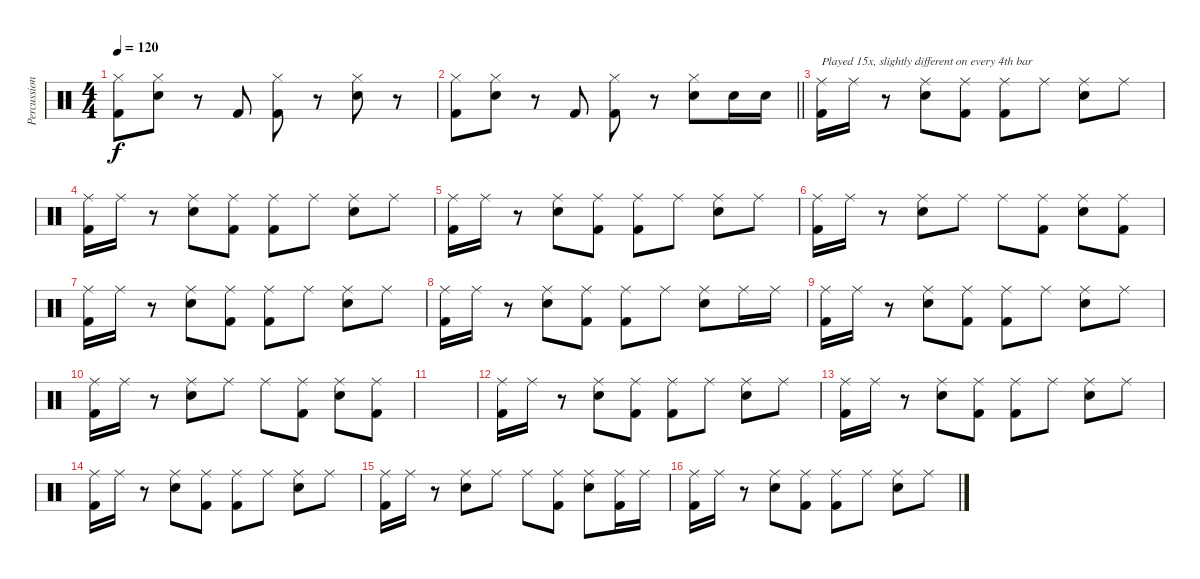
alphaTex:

\track ("Percussioni" "Percussion") {instrument percussion}
\staff {score}
\articulation defaults
\ts (4 4)
\tempo 120
\clef neutral
\ks c
("Hi-Hat (closed)" "Kick (hit) 2").8{dy f} ("Electric Snare (hit)" "Hi-Hat (closed)").8 r.8 "Kick (hit) 2".8 ("Hi-Hat (closed)" "Kick (hit) 2").8 r.8 ("Electric Snare (hit)" "Hi-Hat (closed)").8 r.8 |
\barLineRight lightlight
("Hi-Hat (closed)" "Kick (hit) 2").8 ("Electric Snare (hit)" "Hi-Hat (closed)").8 r.8 "Kick (hit) 2".8 ("Hi-Hat (closed)" "Kick (hit) 2").8 r.8 ("Electric Snare (hit)" "Hi-Hat (closed)").8 "Electric Snare (hit)".16 "Electric Snare (hit)".16 |
("Ride (middle)" "Kick (hit) 2").16{txt "Played 15x, slightly different on every 4th bar"} "Ride (middle)".16 r.8 ("Ride (middle)" "Electric Snare (hit)").8 ("Ride (middle)" "Kick (hit) 2").8 ("Ride (middle)" "Kick (hit) 2").8 "Ride (middle)".8 ("Ride (middle)" "Electric Snare (hit)").8 "Ride (middle)".8 |
("Ride (middle)" "Kick (hit) 2").16 "Ride (middle)".16 r.8 ("Ride (middle)" "Electric Snare (hit)").8 ("Ride (middle)" "Kick (hit) 2").8 ("Ride (middle)" "Kick (hit) 2").8 "Ride (middle)".8 ("Ride (middle)" "Electric Snare (hit)").8 "Ride (middle)".8 |
("Ride (middle)" "Kick (hit) 2").16 "Ride (middle)".16 r.8 ("Ride (middle)" "Electric Snare (hit)").8 ("Ride (middle)" "Kick (hit) 2").8 ("Ride (middle)" "Kick (hit) 2").8 "Ride (middle)".8 ("Ride (middle)" "Electric Snare (hit)").8 "Ride (middle)".8 |
("Ride (middle)" "Kick (hit) 2").16 "Ride (middle)".16 r.8 ("Ride (middle)" "Electric Snare (hit)").8 "Ride (middle)".8 "Ride (middle)".8 ("Ride (middle)" "Kick (hit) 2").8 ("Ride (middle)" "Electric Snare (hit)").8 ("Ride (middle)" "Kick (hit) 2").8 |
("Ride (middle)" "Kick (hit) 2").16 "Ride (middle)".16 r.8 ("Ride (middle)" "Electric Snare (hit)").8 ("Ride (middle)" "Kick (hit) 2").8 ("Ride (middle)" "Kick (hit) 2").8 "Ride (middle)".8 ("Ride (middle)" "Electric Snare (hit)").8 "Ride (middle)".8 |
("Ride (middle)" "Kick (hit) 2").16 "Ride (middle)".16 r.8 ("Ride (middle)" "Electric Snare (hit)").8 ("Ride (middle)" "Kick (hit) 2").8 ("Ride (middle)" "Kick (hit) 2").8 "Ride (middle)".8 ("Ride (middle)" "Electric Snare (hit)").8 "Ride (middle)".16 "Ride (middle)".16 |
("Ride (middle)" "Kick (hit) 2").16 "Ride (middle)".16 r.8 ("Ride (middle)" "Electric Snare (hit)").8 ("Ride (middle)" "Kick (hit) 2").8 ("Ride (middle)" "Kick (hit) 2").8 "Ride (middle)".8 ("Ride (middle)" "Electric Snare (hit)").8 "Ride (middle)".8 |
("Ride (middle)" "Kick (hit) 2").16 "Ride (middle)".16 r.8 ("Ride (middle)" "Electric Snare (hit)").8 "Ride (middle)".8 "Ride (middle)".8 ("Ride (middle)" "Kick (hit) 2").8 ("Ride (middle)" "Electric Snare (hit)").8 ("Ride (middle)" "Kick (hit) 2").8 |
|
("Ride (middle)" "Kick (hit) 2").16 "Ride (middle)".16 r.8 ("Ride (middle)" "Electric Snare (hit)").8 ("Ride (middle)" "Kick (hit) 2").8 ("Ride (middle)" "Kick (hit) 2").8 "Ride (middle)".8 ("Ride (middle)" "Electric Snare (hit)").8 "Ride (middle)".8 |
("Ride (middle)" "Kick (hit) 2").16 "Ride (middle)".16 r.8 ("Ride (middle)" "Electric Snare (hit)").8 ("Ride (middle)" "Kick (hit) 2").8 ("Ride (middle)" "Kick (hit) 2").8 "Ride (middle)".8 ("Ride (middle)" "Electric Snare (hit)").8 "Ride (middle)".8 |
("Ride (middle)" "Kick (hit) 2").16 "Ride (middle)".16 r.8 ("Ride (middle)" "Electric Snare (hit)").8 ("Ride (middle)" "Kick (hit) 2").8 ("Ride (middle)" "Kick (hit) 2").8 "Ride (middle)".8 ("Ride (middle)" "Electric Snare (hit)").8 "Ride (middle)".8 |
("Ride (middle)" "Kick (hit) 2").16 "Ride (middle)".16 r.8 ("Ride (middle)" "Electric Snare (hit)").8 "Ride (middle)".8 "Ride (middle)".8 ("Ride (middle)" "Kick (hit) 2").8 ("Ride (middle)" "Electric Snare (hit)").8 ("Ride (middle)" "Kick (hit) 2").16 "Ride (middle)".16 |
("Ride (middle)" "Kick (hit) 2").16 "Ride (middle)".16 r.8 ("Ride (middle)" "Electric Snare (hit)").8 ("Ride (middle)" "Kick (hit) 2").8 ("Ride (middle)" "Kick (hit) 2").8 "Ride (middle)".8 ("Ride (middle)" "Electric Snare (hit)").8 "Ride (middle)".8
